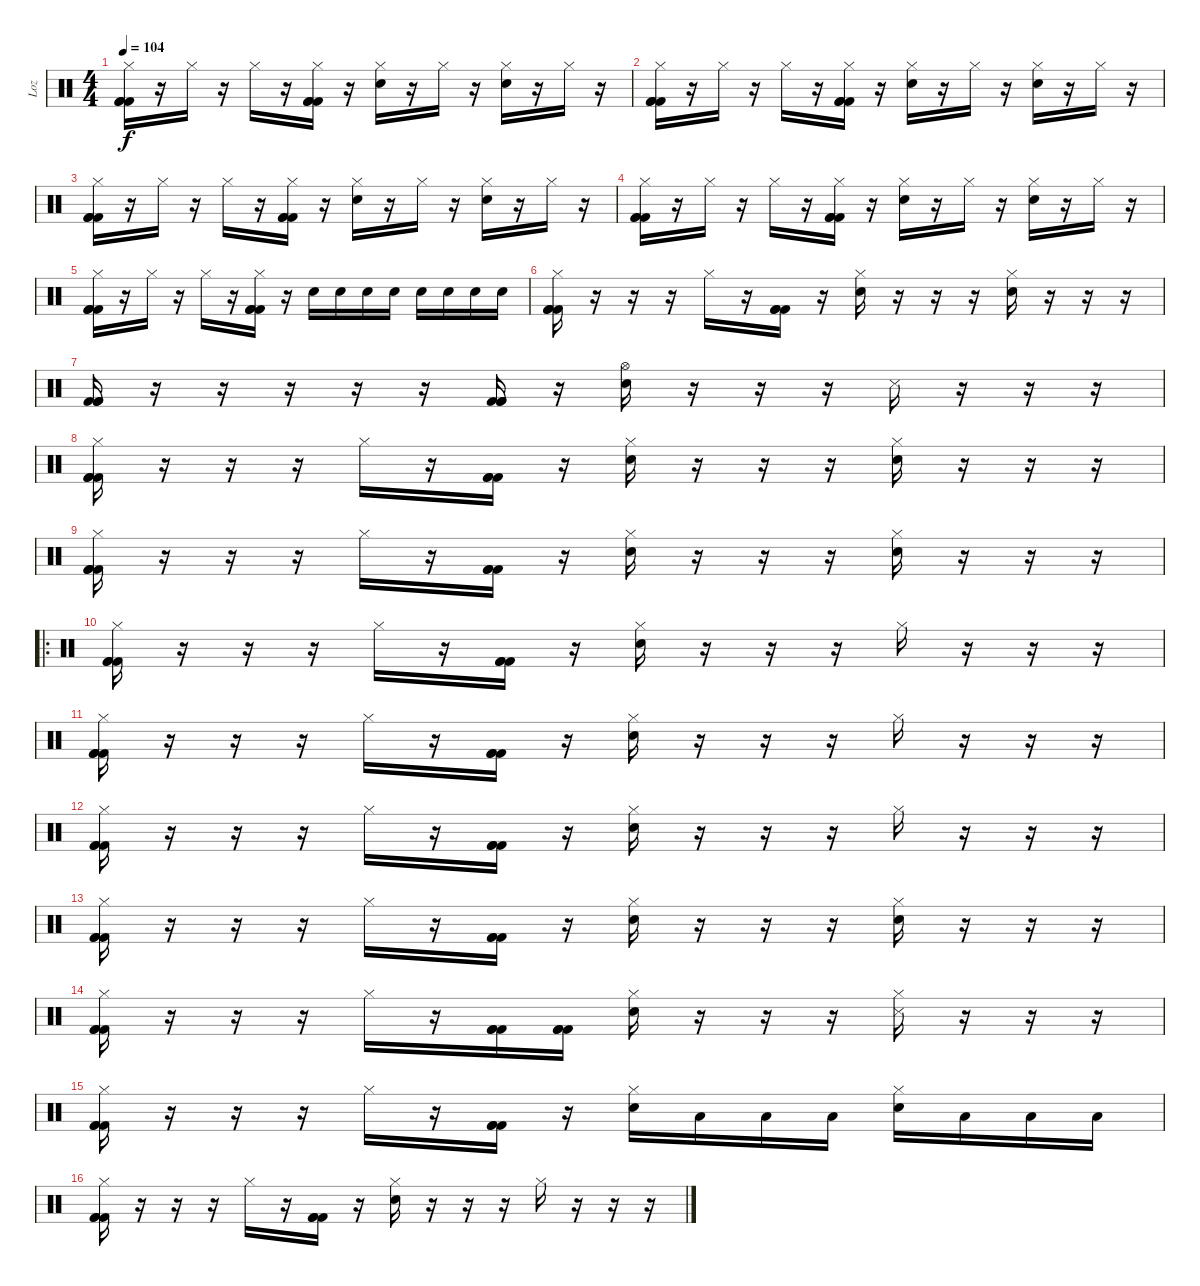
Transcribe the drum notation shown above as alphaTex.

\track ("Loz" "Loz") {instrument percussion}
\staff {score}
\articulation defaults
\ts (4 4)
\tempo 104
\clef neutral
\ks c
("Hi-Hat (closed)" "Kick (hit) 2" "Kick (hit) 2" "Kick (hit) 2").16{dy f} r.16 "Hi-Hat (closed)".16 r.16 "Hi-Hat (closed)".16 r.16 ("Hi-Hat (closed)" "Kick (hit) 2" "Kick (hit) 2" "Kick (hit) 2").16 r.16 ("Hi-Hat (closed)" "Electric Snare (hit)").16 r.16 "Hi-Hat (closed)".16 r.16 ("Hi-Hat (closed)" "Electric Snare (hit)").16 r.16 "Hi-Hat (closed)".16 r.16 |
("Hi-Hat (closed)" "Kick (hit) 2" "Kick (hit) 2" "Kick (hit) 2").16 r.16 "Hi-Hat (closed)".16 r.16 "Hi-Hat (closed)".16 r.16 ("Hi-Hat (closed)" "Kick (hit) 2" "Kick (hit) 2" "Kick (hit) 2").16 r.16 ("Hi-Hat (closed)" "Electric Snare (hit)").16 r.16 "Hi-Hat (closed)".16 r.16 ("Hi-Hat (closed)" "Electric Snare (hit)").16 r.16 "Hi-Hat (closed)".16 r.16 |
("Hi-Hat (closed)" "Kick (hit) 2" "Kick (hit) 2" "Kick (hit) 2").16 r.16 "Hi-Hat (closed)".16 r.16 "Hi-Hat (closed)".16 r.16 ("Hi-Hat (closed)" "Kick (hit) 2" "Kick (hit) 2" "Kick (hit) 2").16 r.16 ("Hi-Hat (closed)" "Electric Snare (hit)").16 r.16 "Hi-Hat (closed)".16 r.16 ("Hi-Hat (closed)" "Electric Snare (hit)").16 r.16 "Hi-Hat (closed)".16 r.16 |
("Hi-Hat (closed)" "Kick (hit) 2" "Kick (hit) 2" "Kick (hit) 2").16 r.16 "Hi-Hat (closed)".16 r.16 "Hi-Hat (closed)".16 r.16 ("Hi-Hat (closed)" "Kick (hit) 2" "Kick (hit) 2" "Kick (hit) 2").16 r.16 ("Hi-Hat (closed)" "Electric Snare (hit)").16 r.16 "Hi-Hat (closed)".16 r.16 ("Hi-Hat (closed)" "Electric Snare (hit)").16 r.16 "Hi-Hat (closed)".16 r.16 |
("Hi-Hat (closed)" "Kick (hit) 2" "Kick (hit) 2" "Kick (hit) 2").16 r.16 "Hi-Hat (closed)".16 r.16 "Hi-Hat (closed)".16 r.16 ("Hi-Hat (closed)" "Kick (hit) 2" "Kick (hit) 2" "Kick (hit) 2").16 r.16 "Electric Snare (hit)".16 "Electric Snare (hit)".16 "Electric Snare (hit)".16 "Electric Snare (hit)".16 "Electric Snare (hit)".16 "Electric Snare (hit)".16 "Electric Snare (hit)".16 "Electric Snare (hit)".16 |
("Hi-Hat (closed)" "Kick (hit) 2" "Kick (hit) 2" "Kick (hit) 2").16 r.16 r.16 r.16 "Hi-Hat (closed)".16 r.16 ("Kick (hit) 2" "Kick (hit) 2" "Kick (hit) 2").16 r.16 ("Hi-Hat (closed)" "Electric Snare (hit)").16 r.16 r.16 r.16 ("Hi-Hat (closed)" "Electric Snare (hit)").16 r.16 r.16 r.16 |
("Kick (hit) 2" "Kick (hit) 2" "Kick (hit) 2").16 r.16 r.16 r.16 r.16 r.16 ("Kick (hit) 2" "Kick (hit) 2" "Kick (hit) 2").16 r.16 ("Hi-Hat (open)" "Electric Snare (hit)").16 r.16 r.16 r.16 "Snare (side stick) 3".16 r.16 r.16 r.16 |
("Hi-Hat (closed)" "Kick (hit) 2" "Kick (hit) 2" "Kick (hit) 2").16 r.16 r.16 r.16 "Hi-Hat (closed)".16 r.16 ("Kick (hit) 2" "Kick (hit) 2" "Kick (hit) 2").16 r.16 ("Hi-Hat (closed)" "Electric Snare (hit)").16 r.16 r.16 r.16 ("Hi-Hat (closed)" "Electric Snare (hit)").16 r.16 r.16 r.16 |
("Hi-Hat (closed)" "Kick (hit) 2" "Kick (hit) 2" "Kick (hit) 2").16 r.16 r.16 r.16 "Hi-Hat (closed)".16 r.16 ("Kick (hit) 2" "Kick (hit) 2" "Kick (hit) 2").16 r.16 ("Hi-Hat (closed)" "Electric Snare (hit)").16 r.16 r.16 r.16 ("Hi-Hat (closed)" "Electric Snare (hit)").16 r.16 r.16 r.16 |
\ro
("Hi-Hat (closed)" "Kick (hit) 2" "Kick (hit) 2" "Kick (hit) 2").16 r.16 r.16 r.16 "Hi-Hat (closed)".16 r.16 ("Kick (hit) 2" "Kick (hit) 2" "Kick (hit) 2").16 r.16 ("Hi-Hat (closed)" "Electric Snare (hit)").16 r.16 r.16 r.16 "Hi-Hat (closed)".16 r.16 r.16 r.16 |
("Hi-Hat (closed)" "Kick (hit) 2" "Kick (hit) 2" "Kick (hit) 2").16 r.16 r.16 r.16 "Hi-Hat (closed)".16 r.16 ("Kick (hit) 2" "Kick (hit) 2" "Kick (hit) 2").16 r.16 ("Hi-Hat (closed)" "Electric Snare (hit)").16 r.16 r.16 r.16 "Hi-Hat (closed)".16 r.16 r.16 r.16 |
("Hi-Hat (closed)" "Kick (hit) 2" "Kick (hit) 2" "Kick (hit) 2").16 r.16 r.16 r.16 "Hi-Hat (closed)".16 r.16 ("Kick (hit) 2" "Kick (hit) 2" "Kick (hit) 2").16 r.16 ("Hi-Hat (closed)" "Electric Snare (hit)").16 r.16 r.16 r.16 "Hi-Hat (closed)".16 r.16 r.16 r.16 |
("Hi-Hat (closed)" "Kick (hit) 2" "Kick (hit) 2" "Kick (hit) 2").16 r.16 r.16 r.16 "Hi-Hat (closed)".16 r.16 ("Kick (hit) 2" "Kick (hit) 2" "Kick (hit) 2").16 r.16 ("Hi-Hat (closed)" "Electric Snare (hit)").16 r.16 r.16 r.16 ("Hi-Hat (closed)" "Electric Snare (hit)").16 r.16 r.16 r.16 |
("Hi-Hat (closed)" "Kick (hit) 2" "Kick (hit) 2" "Kick (hit) 2").16 r.16 r.16 r.16 "Hi-Hat (closed)".16 r.16 ("Kick (hit) 2" "Kick (hit) 2" "Kick (hit) 2").16 ("Kick (hit) 2" "Kick (hit) 2" "Kick (hit) 2").16 ("Hi-Hat (closed)" "Electric Snare (hit)").16 r.16 r.16 r.16 ("Hi-Hat (closed)" "Snare (side stick) 3").16 r.16 r.16 r.16 |
("Hi-Hat (closed)" "Kick (hit) 2" "Kick (hit) 2" "Kick (hit) 2").16 r.16 r.16 r.16 "Hi-Hat (closed)".16 r.16 ("Kick (hit) 2" "Kick (hit) 2" "Kick (hit) 2").16 r.16 ("Hi-Hat (closed)" "Electric Snare (hit)").16 "Low Floor Tom (hit)".16 "Low Tom (hit)".16 "Low Floor Tom (hit)".16 ("Hi-Hat (closed)" "Electric Snare (hit)").16 "Low Floor Tom (hit)".16 "Low Tom (hit)".16 "Low Floor Tom (hit)".16 |
("Hi-Hat (closed)" "Kick (hit) 2" "Kick (hit) 2" "Kick (hit) 2").16 r.16 r.16 r.16 "Hi-Hat (closed)".16 r.16 ("Kick (hit) 2" "Kick (hit) 2" "Kick (hit) 2").16 r.16 ("Hi-Hat (closed)" "Electric Snare (hit)").16 r.16 r.16 r.16 "Hi-Hat (closed)".16 r.16 r.16 r.16
